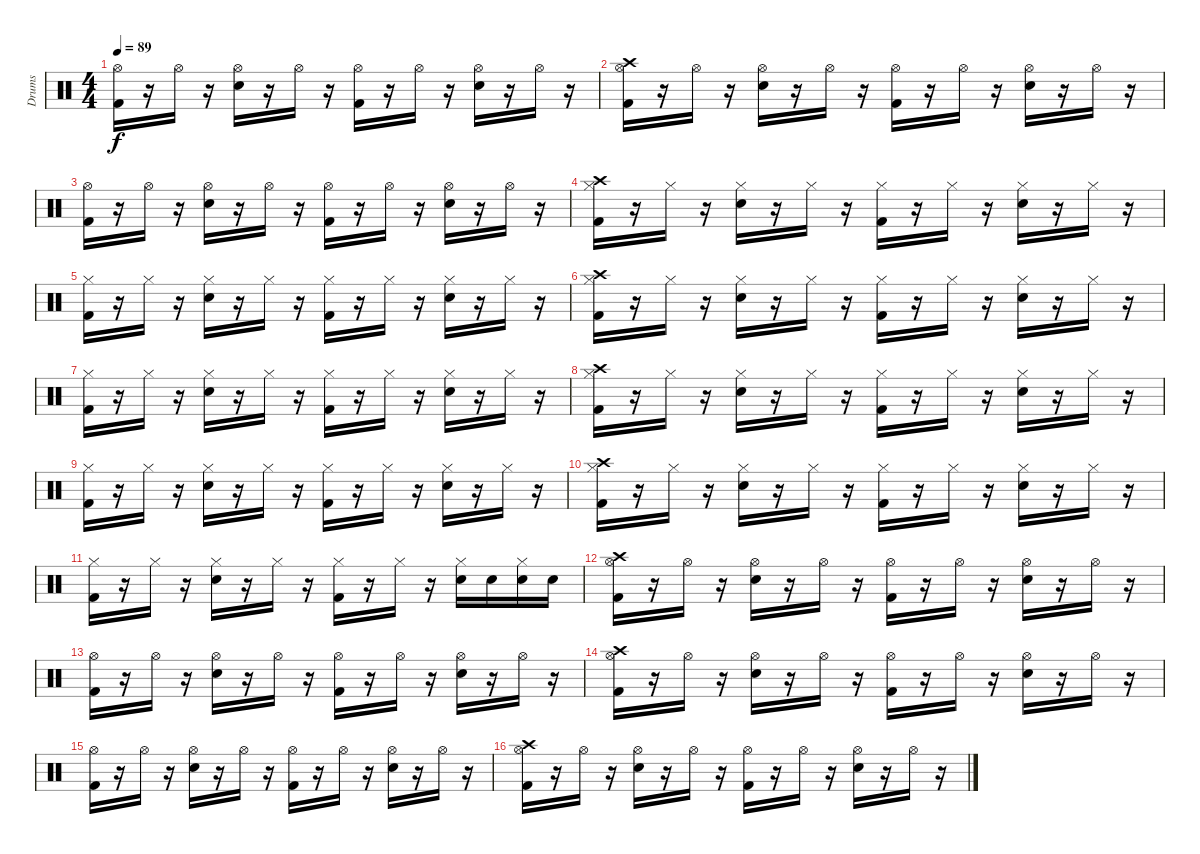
\track ("Drums " "Drums ") {instrument percussion}
\staff {score}
\articulation defaults
\ts (4 4)
\tempo 89
\clef neutral
\ks c
("Kick (hit) 2" "Hi-Hat (open)").16{dy f} r.16 "Hi-Hat (open)".16 r.16 ("Snare (hit) 2" "Hi-Hat (open)").16 r.16 "Hi-Hat (open)".16 r.16 ("Kick (hit) 2" "Hi-Hat (open)").16 r.16 "Hi-Hat (open)".16 r.16 ("Snare (hit) 2" "Hi-Hat (open)").16 r.16 "Hi-Hat (open)".16 r.16 |
("Kick (hit) 2" "Crash high (hit)" "Hi-Hat (open)").16 r.16 "Hi-Hat (open)".16 r.16 ("Snare (hit) 2" "Hi-Hat (open)").16 r.16 "Hi-Hat (open)".16 r.16 ("Kick (hit) 2" "Hi-Hat (open)").16 r.16 "Hi-Hat (open)".16 r.16 ("Snare (hit) 2" "Hi-Hat (open)").16 r.16 "Hi-Hat (open)".16 r.16 |
("Kick (hit) 2" "Hi-Hat (open)").16 r.16 "Hi-Hat (open)".16 r.16 ("Snare (hit) 2" "Hi-Hat (open)").16 r.16 "Hi-Hat (open)".16 r.16 ("Kick (hit) 2" "Hi-Hat (open)").16 r.16 "Hi-Hat (open)".16 r.16 ("Snare (hit) 2" "Hi-Hat (open)").16 r.16 "Hi-Hat (open)".16 r.16 |
("Kick (hit) 2" "Crash high (hit)" "Hi-Hat (closed)").16 r.16 "Hi-Hat (closed)".16 r.16 ("Snare (hit) 2" "Hi-Hat (closed)").16 r.16 "Hi-Hat (closed)".16 r.16 ("Kick (hit) 2" "Hi-Hat (closed)").16 r.16 "Hi-Hat (closed)".16 r.16 ("Snare (hit) 2" "Hi-Hat (closed)").16 r.16 "Hi-Hat (closed)".16 r.16 |
("Kick (hit) 2" "Hi-Hat (closed)").16 r.16 "Hi-Hat (closed)".16 r.16 ("Snare (hit) 2" "Hi-Hat (closed)").16 r.16 "Hi-Hat (closed)".16 r.16 ("Kick (hit) 2" "Hi-Hat (closed)").16 r.16 "Hi-Hat (closed)".16 r.16 ("Snare (hit) 2" "Hi-Hat (closed)").16 r.16 "Hi-Hat (closed)".16 r.16 |
("Kick (hit) 2" "Crash high (hit)" "Hi-Hat (closed)").16 r.16 "Hi-Hat (closed)".16 r.16 ("Snare (hit) 2" "Hi-Hat (closed)").16 r.16 "Hi-Hat (closed)".16 r.16 ("Kick (hit) 2" "Hi-Hat (closed)").16 r.16 "Hi-Hat (closed)".16 r.16 ("Snare (hit) 2" "Hi-Hat (closed)").16 r.16 "Hi-Hat (closed)".16 r.16 |
("Kick (hit) 2" "Hi-Hat (closed)").16 r.16 "Hi-Hat (closed)".16 r.16 ("Snare (hit) 2" "Hi-Hat (closed)").16 r.16 "Hi-Hat (closed)".16 r.16 ("Kick (hit) 2" "Hi-Hat (closed)").16 r.16 "Hi-Hat (closed)".16 r.16 ("Snare (hit) 2" "Hi-Hat (closed)").16 r.16 "Hi-Hat (closed)".16 r.16 |
("Kick (hit) 2" "Crash high (hit)" "Hi-Hat (closed)").16 r.16 "Hi-Hat (closed)".16 r.16 ("Snare (hit) 2" "Hi-Hat (closed)").16 r.16 "Hi-Hat (closed)".16 r.16 ("Kick (hit) 2" "Hi-Hat (closed)").16 r.16 "Hi-Hat (closed)".16 r.16 ("Snare (hit) 2" "Hi-Hat (closed)").16 r.16 "Hi-Hat (closed)".16 r.16 |
("Kick (hit) 2" "Hi-Hat (closed)").16 r.16 "Hi-Hat (closed)".16 r.16 ("Snare (hit) 2" "Hi-Hat (closed)").16 r.16 "Hi-Hat (closed)".16 r.16 ("Kick (hit) 2" "Hi-Hat (closed)").16 r.16 "Hi-Hat (closed)".16 r.16 ("Snare (hit) 2" "Hi-Hat (closed)").16 r.16 "Hi-Hat (closed)".16 r.16 |
("Kick (hit) 2" "Crash high (hit)" "Hi-Hat (closed)").16 r.16 "Hi-Hat (closed)".16 r.16 ("Snare (hit) 2" "Hi-Hat (closed)").16 r.16 "Hi-Hat (closed)".16 r.16 ("Kick (hit) 2" "Hi-Hat (closed)").16 r.16 "Hi-Hat (closed)".16 r.16 ("Snare (hit) 2" "Hi-Hat (closed)").16 r.16 "Hi-Hat (closed)".16 r.16 |
("Kick (hit) 2" "Hi-Hat (closed)").16 r.16 "Hi-Hat (closed)".16 r.16 ("Snare (hit) 2" "Hi-Hat (closed)").16 r.16 "Hi-Hat (closed)".16 r.16 ("Kick (hit) 2" "Hi-Hat (closed)").16 r.16 "Hi-Hat (closed)".16 r.16 ("Snare (hit) 2" "Hi-Hat (closed)").16 "Snare (hit) 2".16 ("Hi-Hat (closed)" "Snare (hit) 2").16 "Snare (hit) 2".16 |
("Kick (hit) 2" "Crash high (hit)" "Hi-Hat (open)").16 r.16 "Hi-Hat (open)".16 r.16 ("Snare (hit) 2" "Hi-Hat (open)").16 r.16 "Hi-Hat (open)".16 r.16 ("Kick (hit) 2" "Hi-Hat (open)").16 r.16 "Hi-Hat (open)".16 r.16 ("Snare (hit) 2" "Hi-Hat (open)").16 r.16 "Hi-Hat (open)".16 r.16 |
("Kick (hit) 2" "Hi-Hat (open)").16 r.16 "Hi-Hat (open)".16 r.16 ("Snare (hit) 2" "Hi-Hat (open)").16 r.16 "Hi-Hat (open)".16 r.16 ("Kick (hit) 2" "Hi-Hat (open)").16 r.16 "Hi-Hat (open)".16 r.16 ("Snare (hit) 2" "Hi-Hat (open)").16 r.16 "Hi-Hat (open)".16 r.16 |
("Kick (hit) 2" "Crash high (hit)" "Hi-Hat (open)").16 r.16 "Hi-Hat (open)".16 r.16 ("Snare (hit) 2" "Hi-Hat (open)").16 r.16 "Hi-Hat (open)".16 r.16 ("Kick (hit) 2" "Hi-Hat (open)").16 r.16 "Hi-Hat (open)".16 r.16 ("Snare (hit) 2" "Hi-Hat (open)").16 r.16 "Hi-Hat (open)".16 r.16 |
("Kick (hit) 2" "Hi-Hat (open)").16 r.16 "Hi-Hat (open)".16 r.16 ("Snare (hit) 2" "Hi-Hat (open)").16 r.16 "Hi-Hat (open)".16 r.16 ("Kick (hit) 2" "Hi-Hat (open)").16 r.16 "Hi-Hat (open)".16 r.16 ("Snare (hit) 2" "Hi-Hat (open)").16 r.16 "Hi-Hat (open)".16 r.16 |
("Kick (hit) 2" "Crash high (hit)" "Hi-Hat (open)").16 r.16 "Hi-Hat (open)".16 r.16 ("Snare (hit) 2" "Hi-Hat (open)").16 r.16 "Hi-Hat (open)".16 r.16 ("Kick (hit) 2" "Hi-Hat (open)").16 r.16 "Hi-Hat (open)".16 r.16 ("Snare (hit) 2" "Hi-Hat (open)").16 r.16 "Hi-Hat (open)".16 r.16
